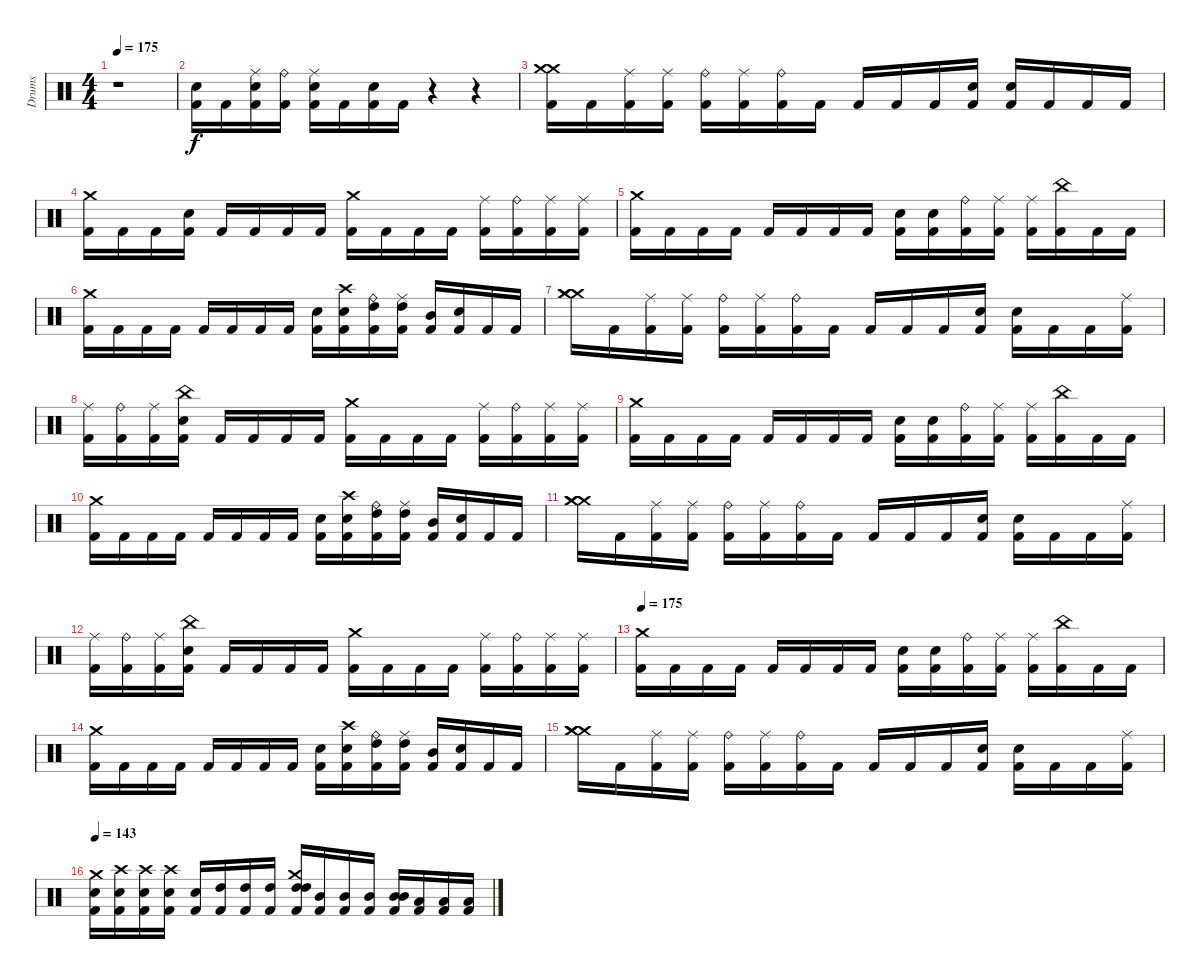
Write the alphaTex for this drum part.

\track ("Drums" "Drums") {instrument percussion}
\staff {score}
\articulation defaults
\ts (4 4)
\tempo 175
\clef neutral
\ks c
r.1{dy f} |
("Electric Snare (hit)" "Kick (hit) 2").16 "Kick (hit) 2".16 ("Ride (middle)" "Electric Snare (hit)" "Kick (hit) 2").16 ("Ride (bell)" "Kick (hit) 2").16 ("Ride (middle)" "Electric Snare (hit)" "Kick (hit) 2").16 "Kick (hit) 2".16 ("Electric Snare (hit)" "Kick (hit) 2").16 "Kick (hit) 2".16 r.4 r.4 |
("Crash medium (hit)" "Kick (hit) 2" "Crash medium (hit)").16 "Kick (hit) 2".16 ("Ride (middle)" "Kick (hit) 2").16 ("Ride (middle)" "Kick (hit) 2").16 ("Ride (bell)" "Kick (hit) 2").16 ("Ride (middle)" "Kick (hit) 2").16 ("Ride (bell)" "Kick (hit) 2").16 "Kick (hit) 2".16 "Kick (hit) 2".16 "Kick (hit) 2".16 "Kick (hit) 2".16 ("Electric Snare (hit)" "Kick (hit) 2").16 ("Electric Snare (hit)" "Kick (hit) 2").16 "Kick (hit) 2".16 "Kick (hit) 2".16 "Kick (hit) 2".16 |
("Crash medium (hit)" "Kick (hit) 2").16 "Kick (hit) 2".16 "Kick (hit) 2".16 ("Electric Snare (hit)" "Kick (hit) 2").16 "Kick (hit) 2".16 "Kick (hit) 2".16 "Kick (hit) 2".16 "Kick (hit) 2".16 ("Crash medium (hit)" "Kick (hit) 2").16 "Kick (hit) 2".16 "Kick (hit) 2".16 "Kick (hit) 2".16 ("Ride (middle)" "Kick (hit) 2").16 ("Ride (bell)" "Kick (hit) 2").16 ("Ride (middle)" "Kick (hit) 2").16 ("Ride (middle)" "Kick (hit) 2").16 |
("Crash medium (hit)" "Kick (hit) 2").16 "Kick (hit) 2".16 "Kick (hit) 2".16 "Kick (hit) 2".16 "Kick (hit) 2".16 "Kick (hit) 2".16 "Kick (hit) 2".16 "Kick (hit) 2".16 ("Electric Snare (hit)" "Kick (hit) 2").16 ("Electric Snare (hit)" "Kick (hit) 2").16 ("Ride (bell)" "Kick (hit) 2").16 ("Ride (middle)" "Kick (hit) 2").16 ("Ride (middle)" "Kick (hit) 2").16 ("China (hit)" "Kick (hit) 2").16 "Kick (hit) 2".16 "Kick (hit) 2".16 |
("Crash medium (hit)" "Kick (hit) 2").16 "Kick (hit) 2".16 "Kick (hit) 2".16 "Kick (hit) 2".16 "Kick (hit) 2".16 "Kick (hit) 2".16 "Kick (hit) 2".16 "Kick (hit) 2".16 ("Electric Snare (hit)" "Kick (hit) 2").16 ("Crash high (hit)" "Electric Snare (hit)" "Kick (hit) 2").16 ("Ride (bell)" "High Tom (hit)" "Kick (hit) 2").16 ("Ride (middle)" "High Tom (hit)" "Kick (hit) 2").16 ("Mid Tom (hit)" "Kick (hit) 2").16 ("Electric Snare (hit)" "Kick (hit) 2").16 "Kick (hit) 2".16 "Kick (hit) 2".16 |
("Crash medium (hit)" "Crash medium (hit)" "Crash medium (hit)").16 "Kick (hit) 2".16 ("Ride (middle)" "Kick (hit) 2").16 ("Ride (middle)" "Kick (hit) 2").16 ("Ride (bell)" "Kick (hit) 2").16 ("Ride (middle)" "Kick (hit) 2").16 ("Ride (bell)" "Kick (hit) 2").16 "Kick (hit) 2".16 "Kick (hit) 2".16 "Kick (hit) 2".16 "Kick (hit) 2".16 ("Electric Snare (hit)" "Kick (hit) 2").16 ("Electric Snare (hit)" "Kick (hit) 2").16 "Kick (hit) 2".16 "Kick (hit) 2".16 ("Ride (middle)" "Kick (hit) 2").16 |
("Ride (middle)" "Kick (hit) 2").16 ("Ride (bell)" "Kick (hit) 2").16 ("Ride (middle)" "Kick (hit) 2").16 ("China (hit)" "Electric Snare (hit)" "Kick (hit) 2").16 "Kick (hit) 2".16 "Kick (hit) 2".16 "Kick (hit) 2".16 "Kick (hit) 2".16 ("Crash medium (hit)" "Kick (hit) 2").16 "Kick (hit) 2".16 "Kick (hit) 2".16 "Kick (hit) 2".16 ("Ride (middle)" "Kick (hit) 2").16 ("Ride (bell)" "Kick (hit) 2").16 ("Ride (middle)" "Kick (hit) 2").16 ("Ride (middle)" "Kick (hit) 2").16 |
("Crash medium (hit)" "Kick (hit) 2").16 "Kick (hit) 2".16 "Kick (hit) 2".16 "Kick (hit) 2".16 "Kick (hit) 2".16 "Kick (hit) 2".16 "Kick (hit) 2".16 "Kick (hit) 2".16 ("Electric Snare (hit)" "Kick (hit) 2").16 ("Electric Snare (hit)" "Kick (hit) 2").16 ("Ride (bell)" "Kick (hit) 2").16 ("Ride (middle)" "Kick (hit) 2").16 ("Ride (middle)" "Kick (hit) 2").16 ("China (hit)" "Kick (hit) 2").16 "Kick (hit) 2".16 "Kick (hit) 2".16 |
("Crash medium (hit)" "Kick (hit) 2").16 "Kick (hit) 2".16 "Kick (hit) 2".16 "Kick (hit) 2".16 "Kick (hit) 2".16 "Kick (hit) 2".16 "Kick (hit) 2".16 "Kick (hit) 2".16 ("Electric Snare (hit)" "Kick (hit) 2").16 ("Crash high (hit)" "Electric Snare (hit)" "Kick (hit) 2").16 ("Ride (bell)" "High Tom (hit)" "Kick (hit) 2").16 ("Ride (middle)" "High Tom (hit)" "Kick (hit) 2").16 ("Mid Tom (hit)" "Kick (hit) 2").16 ("Electric Snare (hit)" "Kick (hit) 2").16 "Kick (hit) 2".16 "Kick (hit) 2".16 |
("Crash medium (hit)" "Crash medium (hit)" "Crash medium (hit)").16 "Kick (hit) 2".16 ("Ride (middle)" "Kick (hit) 2").16 ("Ride (middle)" "Kick (hit) 2").16 ("Ride (bell)" "Kick (hit) 2").16 ("Ride (middle)" "Kick (hit) 2").16 ("Ride (bell)" "Kick (hit) 2").16 "Kick (hit) 2".16 "Kick (hit) 2".16 "Kick (hit) 2".16 "Kick (hit) 2".16 ("Electric Snare (hit)" "Kick (hit) 2").16 ("Electric Snare (hit)" "Kick (hit) 2").16 "Kick (hit) 2".16 "Kick (hit) 2".16 ("Ride (middle)" "Kick (hit) 2").16 |
("Ride (middle)" "Kick (hit) 2").16 ("Ride (bell)" "Kick (hit) 2").16 ("Ride (middle)" "Kick (hit) 2").16 ("China (hit)" "Electric Snare (hit)" "Kick (hit) 2").16 "Kick (hit) 2".16 "Kick (hit) 2".16 "Kick (hit) 2".16 "Kick (hit) 2".16 ("Crash medium (hit)" "Kick (hit) 2").16 "Kick (hit) 2".16 "Kick (hit) 2".16 "Kick (hit) 2".16 ("Ride (middle)" "Kick (hit) 2").16 ("Ride (bell)" "Kick (hit) 2").16 ("Ride (middle)" "Kick (hit) 2").16 ("Ride (middle)" "Kick (hit) 2").16 |
\tempo 175
("Crash medium (hit)" "Kick (hit) 2").16 "Kick (hit) 2".16 "Kick (hit) 2".16 "Kick (hit) 2".16 "Kick (hit) 2".16 "Kick (hit) 2".16 "Kick (hit) 2".16 "Kick (hit) 2".16 ("Electric Snare (hit)" "Kick (hit) 2").16 ("Electric Snare (hit)" "Kick (hit) 2").16 ("Ride (bell)" "Kick (hit) 2").16 ("Ride (middle)" "Kick (hit) 2").16 ("Ride (middle)" "Kick (hit) 2").16 ("China (hit)" "Kick (hit) 2").16 "Kick (hit) 2".16 "Kick (hit) 2".16 |
("Crash medium (hit)" "Kick (hit) 2").16 "Kick (hit) 2".16 "Kick (hit) 2".16 "Kick (hit) 2".16 "Kick (hit) 2".16 "Kick (hit) 2".16 "Kick (hit) 2".16 "Kick (hit) 2".16 ("Electric Snare (hit)" "Kick (hit) 2").16 ("Crash high (hit)" "Electric Snare (hit)" "Kick (hit) 2").16 ("Ride (bell)" "High Tom (hit)" "Kick (hit) 2").16 ("Ride (middle)" "High Tom (hit)" "Kick (hit) 2").16 ("Mid Tom (hit)" "Kick (hit) 2").16 ("Electric Snare (hit)" "Kick (hit) 2").16 "Kick (hit) 2".16 "Kick (hit) 2".16 |
("Crash medium (hit)" "Crash medium (hit)" "Crash medium (hit)").16 "Kick (hit) 2".16 ("Ride (middle)" "Kick (hit) 2").16 ("Ride (middle)" "Kick (hit) 2").16 ("Ride (bell)" "Kick (hit) 2").16 ("Ride (middle)" "Kick (hit) 2").16 ("Ride (bell)" "Kick (hit) 2").16 "Kick (hit) 2".16 "Kick (hit) 2".16 "Kick (hit) 2".16 "Kick (hit) 2".16 ("Electric Snare (hit)" "Kick (hit) 2").16 ("Electric Snare (hit)" "Kick (hit) 2").16 "Kick (hit) 2".16 "Kick (hit) 2".16 ("Ride (middle)" "Kick (hit) 2").16 |
\tempo 143
("Crash medium (hit)" "Electric Snare (hit)" "Kick (hit) 2").16 ("Electric Snare (hit)" "Crash high (hit)" "Kick (hit) 2").16 ("Electric Snare (hit)" "Crash high (hit)" "Kick (hit) 2").16 ("Crash high (hit)" "Electric Snare (hit)" "Kick (hit) 2").16 ("Electric Snare (hit)" "Kick (hit) 2").16 ("High Tom (hit)" "Kick (hit) 2").16 ("High Tom (hit)" "Kick (hit) 2").16 ("High Tom (hit)" "Kick (hit) 2").16 ("Crash medium (hit)" "High Tom (hit)" "High Tom (hit)" "Kick (hit) 2").16 ("Mid Tom (hit)" "Kick (hit) 2").16 ("Mid Tom (hit)" "Kick (hit) 2").16 ("Mid Tom (hit)" "Kick (hit) 2").16 ("Mid Tom (hit)" "Mid Tom (hit)" "Kick (hit) 2").16 ("Low Tom (hit)" "Kick (hit) 2").16 ("Low Tom (hit)" "Kick (hit) 2").16 ("Low Tom (hit)" "Kick (hit) 2").16
